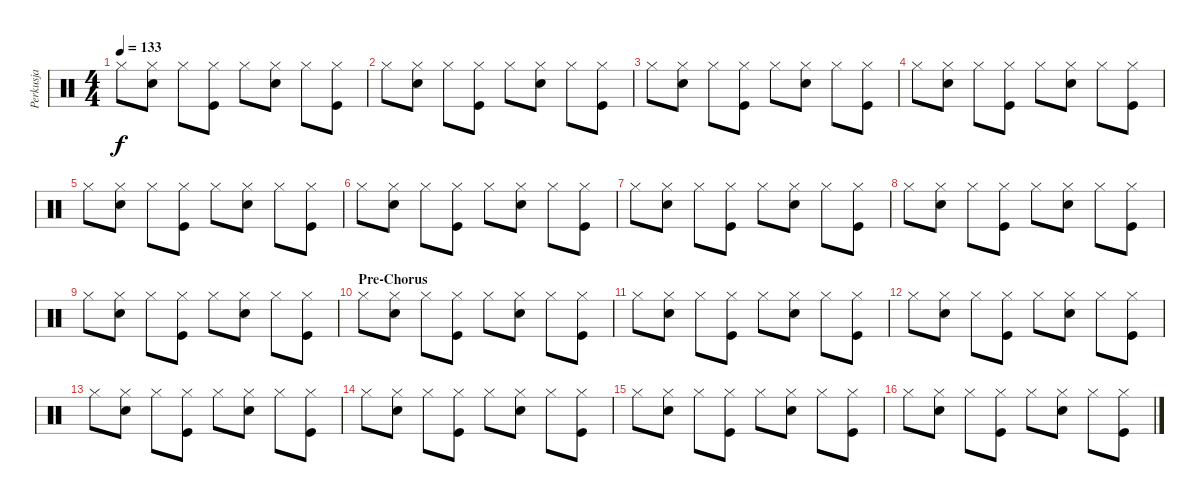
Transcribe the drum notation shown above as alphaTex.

\track ("Perkusja" "Perkusja") {instrument percussion}
\staff {score}
\articulation defaults
\ts (4 4)
\tempo 133
\clef neutral
\ks c "Hi-Hat (closed)".8{dy f}
("Hi-Hat (closed)" "Snare (hit) 2").8 "Hi-Hat (closed)".8 ("Hi-Hat (closed)" "Kick (hit)").8 "Hi-Hat (closed)".8 ("Hi-Hat (closed)" "Snare (hit) 2").8 "Hi-Hat (closed)".8 ("Hi-Hat (closed)" "Kick (hit)").8 |
"Hi-Hat (closed)".8 ("Hi-Hat (closed)" "Snare (hit) 2").8 "Hi-Hat (closed)".8 ("Hi-Hat (closed)" "Kick (hit)").8 "Hi-Hat (closed)".8 ("Hi-Hat (closed)" "Snare (hit) 2").8 "Hi-Hat (closed)".8 ("Hi-Hat (closed)" "Kick (hit)").8 |
"Hi-Hat (closed)".8 ("Hi-Hat (closed)" "Snare (hit) 2").8 "Hi-Hat (closed)".8 ("Hi-Hat (closed)" "Kick (hit)").8 "Hi-Hat (closed)".8 ("Hi-Hat (closed)" "Snare (hit) 2").8 "Hi-Hat (closed)".8 ("Hi-Hat (closed)" "Kick (hit)").8 |
"Hi-Hat (closed)".8 ("Hi-Hat (closed)" "Snare (hit) 2").8 "Hi-Hat (closed)".8 ("Hi-Hat (closed)" "Kick (hit)").8 "Hi-Hat (closed)".8 ("Hi-Hat (closed)" "Snare (hit) 2").8 "Hi-Hat (closed)".8 ("Hi-Hat (closed)" "Kick (hit)").8 |
"Hi-Hat (closed)".8 ("Hi-Hat (closed)" "Snare (hit) 2").8 "Hi-Hat (closed)".8 ("Hi-Hat (closed)" "Kick (hit)").8 "Hi-Hat (closed)".8 ("Hi-Hat (closed)" "Snare (hit) 2").8 "Hi-Hat (closed)".8 ("Hi-Hat (closed)" "Kick (hit)").8 |
"Hi-Hat (closed)".8 ("Hi-Hat (closed)" "Snare (hit) 2").8 "Hi-Hat (closed)".8 ("Hi-Hat (closed)" "Kick (hit)").8 "Hi-Hat (closed)".8 ("Hi-Hat (closed)" "Snare (hit) 2").8 "Hi-Hat (closed)".8 ("Hi-Hat (closed)" "Kick (hit)").8 |
"Hi-Hat (closed)".8 ("Hi-Hat (closed)" "Snare (hit) 2").8 "Hi-Hat (closed)".8 ("Hi-Hat (closed)" "Kick (hit)").8 "Hi-Hat (closed)".8 ("Hi-Hat (closed)" "Snare (hit) 2").8 "Hi-Hat (closed)".8 ("Hi-Hat (closed)" "Kick (hit)").8 |
"Hi-Hat (closed)".8 ("Hi-Hat (closed)" "Snare (hit) 2").8 "Hi-Hat (closed)".8 ("Hi-Hat (closed)" "Kick (hit)").8 "Hi-Hat (closed)".8 ("Hi-Hat (closed)" "Snare (hit) 2").8 "Hi-Hat (closed)".8 ("Hi-Hat (closed)" "Kick (hit)").8 |
"Hi-Hat (closed)".8 ("Hi-Hat (closed)" "Snare (hit) 2").8 "Hi-Hat (closed)".8 ("Hi-Hat (closed)" "Kick (hit)").8 "Hi-Hat (closed)".8 ("Hi-Hat (closed)" "Snare (hit) 2").8 "Hi-Hat (closed)".8 ("Hi-Hat (closed)" "Kick (hit)").8 |
\section ("" "Pre-Chorus")
"Hi-Hat (closed)".8 ("Hi-Hat (closed)" "Snare (hit) 2").8 "Hi-Hat (closed)".8 ("Hi-Hat (closed)" "Kick (hit)").8 "Hi-Hat (closed)".8 ("Hi-Hat (closed)" "Snare (hit) 2").8 "Hi-Hat (closed)".8 ("Hi-Hat (closed)" "Kick (hit)").8 |
"Hi-Hat (closed)".8 ("Hi-Hat (closed)" "Snare (hit) 2").8 "Hi-Hat (closed)".8 ("Hi-Hat (closed)" "Kick (hit)").8 "Hi-Hat (closed)".8 ("Hi-Hat (closed)" "Snare (hit) 2").8 "Hi-Hat (closed)".8 ("Hi-Hat (closed)" "Kick (hit)").8 |
"Hi-Hat (closed)".8 ("Hi-Hat (closed)" "Snare (hit) 2").8 "Hi-Hat (closed)".8 ("Hi-Hat (closed)" "Kick (hit)").8 "Hi-Hat (closed)".8 ("Hi-Hat (closed)" "Snare (hit) 2").8 "Hi-Hat (closed)".8 ("Hi-Hat (closed)" "Kick (hit)").8 |
"Hi-Hat (closed)".8 ("Hi-Hat (closed)" "Snare (hit) 2").8 "Hi-Hat (closed)".8 ("Hi-Hat (closed)" "Kick (hit)").8 "Hi-Hat (closed)".8 ("Hi-Hat (closed)" "Snare (hit) 2").8 "Hi-Hat (closed)".8 ("Hi-Hat (closed)" "Kick (hit)").8 |
"Hi-Hat (closed)".8 ("Hi-Hat (closed)" "Snare (hit) 2").8 "Hi-Hat (closed)".8 ("Hi-Hat (closed)" "Kick (hit)").8 "Hi-Hat (closed)".8 ("Hi-Hat (closed)" "Snare (hit) 2").8 "Hi-Hat (closed)".8 ("Hi-Hat (closed)" "Kick (hit)").8 |
"Hi-Hat (closed)".8 ("Hi-Hat (closed)" "Snare (hit) 2").8 "Hi-Hat (closed)".8 ("Hi-Hat (closed)" "Kick (hit)").8 "Hi-Hat (closed)".8 ("Hi-Hat (closed)" "Snare (hit) 2").8 "Hi-Hat (closed)".8 ("Hi-Hat (closed)" "Kick (hit)").8 |
"Hi-Hat (closed)".8 ("Hi-Hat (closed)" "Snare (hit) 2").8 "Hi-Hat (closed)".8 ("Hi-Hat (closed)" "Kick (hit)").8 "Hi-Hat (closed)".8 ("Hi-Hat (closed)" "Snare (hit) 2").8 "Hi-Hat (closed)".8 ("Hi-Hat (closed)" "Kick (hit)").8
